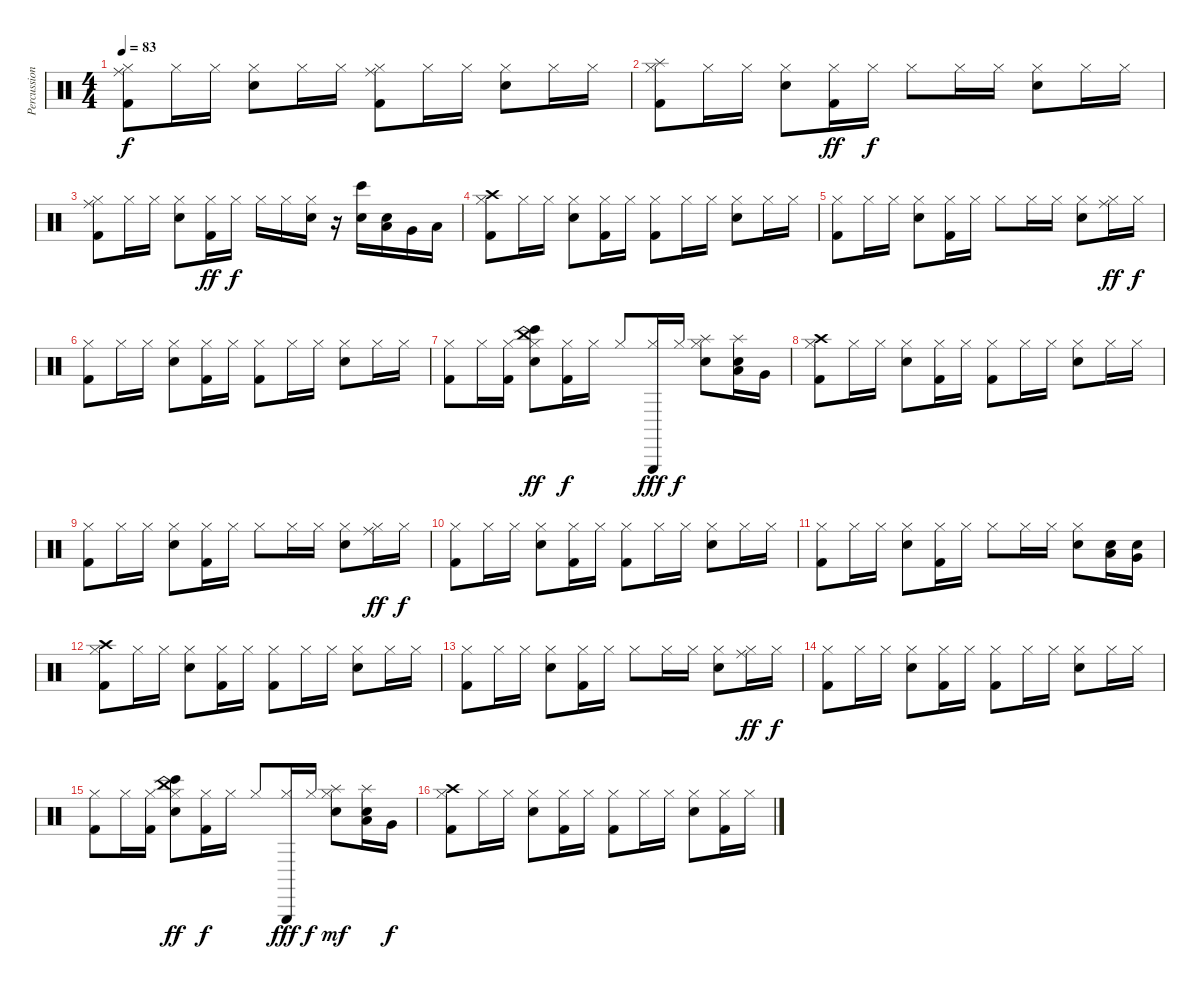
\track ("Percussion" "Percussion") {instrument percussion}
\staff {score}
\articulation defaults
\ts (4 4)
\tempo 83
\clef neutral
\ks c
("Hi-Hat (closed)" "Kick (hit) 2" "Ride (middle)").8{dy f} "Hi-Hat (closed)".16 "Hi-Hat (closed)".16 ("Hi-Hat (closed)" "Electric Snare (hit)").8 "Hi-Hat (closed)".16 "Hi-Hat (closed)".16 ("Hi-Hat (closed)" "Kick (hit) 2" "Ride (middle)").8 "Hi-Hat (closed)".16 "Hi-Hat (closed)".16 ("Hi-Hat (closed)" "Electric Snare (hit)").8 "Hi-Hat (closed)".16 "Hi-Hat (closed)".16 |
("Hi-Hat (closed)" "Kick (hit) 2" "Splash (hit)").8 "Hi-Hat (closed)".16 "Hi-Hat (closed)".16 ("Hi-Hat (closed)" "Electric Snare (hit)").8 ("Hi-Hat (closed)" "Kick (hit) 2").16{dy ff} "Hi-Hat (closed)".16{dy f} "Hi-Hat (closed)".8 "Hi-Hat (closed)".16 "Hi-Hat (closed)".16 ("Hi-Hat (closed)" "Electric Snare (hit)").8 "Hi-Hat (closed)".16 "Hi-Hat (closed)".16 |
("Hi-Hat (closed)" "Kick (hit) 2" "Ride (middle)").8 "Hi-Hat (closed)".16 "Hi-Hat (closed)".16 ("Hi-Hat (closed)" "Electric Snare (hit)").8 ("Hi-Hat (closed)" "Kick (hit) 2").16{dy ff} "Hi-Hat (closed)".16{dy f} "Hi-Hat (closed)".16 "Hi-Hat (closed)".16 ("Hi-Hat (closed)" "Electric Snare (hit)").16 r.16 ("Electric Snare (hit)" "Bongo High (hit)").16 ("Snare (hit) 2" "Low Tom (hit)").16 "Very Low Tom (hit)".16 "Low Floor Tom (hit)".16 |
("Kick (hit) 2" "Hi-Hat (closed)" "Crash high (hit)").8 "Hi-Hat (closed)".16 "Hi-Hat (closed)".16 ("Hi-Hat (closed)" "Electric Snare (hit)").8 ("Hi-Hat (closed)" "Kick (hit) 2").16 "Hi-Hat (closed)".16 ("Hi-Hat (closed)" "Kick (hit) 2").8 "Hi-Hat (closed)".16 "Hi-Hat (closed)".16 ("Hi-Hat (closed)" "Electric Snare (hit)").8 "Hi-Hat (closed)".16 "Hi-Hat (closed)".16 |
("Hi-Hat (closed)" "Kick (hit) 2").8 "Hi-Hat (closed)".16 "Hi-Hat (closed)".16 ("Hi-Hat (closed)" "Electric Snare (hit)").8 ("Hi-Hat (closed)" "Kick (hit) 2").16 "Hi-Hat (closed)".16 "Hi-Hat (closed)".8 "Hi-Hat (closed)".16 "Hi-Hat (closed)".16 ("Hi-Hat (closed)" "Electric Snare (hit)").8 ("Hi-Hat (closed)" "Ride (middle)").16{dy ff} "Hi-Hat (closed)".16{dy f} |
("Kick (hit) 2" "Hi-Hat (closed)").8 "Hi-Hat (closed)".16 "Hi-Hat (closed)".16 ("Hi-Hat (closed)" "Electric Snare (hit)").8 ("Hi-Hat (closed)" "Kick (hit) 2").16 "Hi-Hat (closed)".16 ("Hi-Hat (closed)" "Kick (hit) 2").8 "Hi-Hat (closed)".16 "Hi-Hat (closed)".16 ("Hi-Hat (closed)" "Electric Snare (hit)").8 "Hi-Hat (closed)".16 "Hi-Hat (closed)".16 |
("Hi-Hat (closed)" "Kick (hit) 2").8 "Hi-Hat (closed)".16 ("Hi-Hat (closed)" "Kick (hit) 2").16 ("Hi-Hat (closed)" "Snare (hit) 2" "China (hit)" "Bongo High (hit)").8{dy ff} ("Hi-Hat (closed)" "Kick (hit) 2").16{dy f} "Hi-Hat (closed)".16 "Hi-Hat (closed)".8 ("Hi-Hat (closed)" "Triangle (hit)").16{dy fff} "Hi-Hat (closed)".16{dy f} ("Hi-Hat (closed)" "Electric Snare (hit)" "Splash (hit)").8 ("Electric Snare (hit)" "Low Tom (hit)" "Splash (hit)").16 "Very Low Tom (hit)".16 |
("Kick (hit) 2" "Hi-Hat (closed)" "Crash high (hit)").8 "Hi-Hat (closed)".16 "Hi-Hat (closed)".16 ("Hi-Hat (closed)" "Electric Snare (hit)").8 ("Hi-Hat (closed)" "Kick (hit) 2").16 "Hi-Hat (closed)".16 ("Hi-Hat (closed)" "Kick (hit) 2").8 "Hi-Hat (closed)".16 "Hi-Hat (closed)".16 ("Hi-Hat (closed)" "Electric Snare (hit)").8 "Hi-Hat (closed)".16 "Hi-Hat (closed)".16 |
("Hi-Hat (closed)" "Kick (hit) 2").8 "Hi-Hat (closed)".16 "Hi-Hat (closed)".16 ("Hi-Hat (closed)" "Electric Snare (hit)").8 ("Hi-Hat (closed)" "Kick (hit) 2").16 "Hi-Hat (closed)".16 "Hi-Hat (closed)".8 "Hi-Hat (closed)".16 "Hi-Hat (closed)".16 ("Hi-Hat (closed)" "Electric Snare (hit)").8 ("Hi-Hat (closed)" "Ride (middle)").16{dy ff} "Hi-Hat (closed)".16{dy f} |
("Kick (hit) 2" "Hi-Hat (closed)").8 "Hi-Hat (closed)".16 "Hi-Hat (closed)".16 ("Hi-Hat (closed)" "Electric Snare (hit)").8 ("Hi-Hat (closed)" "Kick (hit) 2").16 "Hi-Hat (closed)".16 ("Hi-Hat (closed)" "Kick (hit) 2").8 "Hi-Hat (closed)".16 "Hi-Hat (closed)".16 ("Hi-Hat (closed)" "Electric Snare (hit)").8 "Hi-Hat (closed)".16 "Hi-Hat (closed)".16 |
("Hi-Hat (closed)" "Kick (hit) 2").8 "Hi-Hat (closed)".16 "Hi-Hat (closed)".16 ("Hi-Hat (closed)" "Electric Snare (hit)").8 ("Hi-Hat (closed)" "Kick (hit) 2").16 "Hi-Hat (closed)".16 "Hi-Hat (closed)".8 "Hi-Hat (closed)".16 "Hi-Hat (closed)".16 ("Hi-Hat (closed)" "Electric Snare (hit)").8 ("Electric Snare (hit)" "Low Tom (hit)").16 ("Electric Snare (hit)" "Very Low Tom (hit)").16 |
("Kick (hit) 2" "Hi-Hat (closed)" "Crash high (hit)").8 "Hi-Hat (closed)".16 "Hi-Hat (closed)".16 ("Hi-Hat (closed)" "Electric Snare (hit)").8 ("Hi-Hat (closed)" "Kick (hit) 2").16 "Hi-Hat (closed)".16 ("Hi-Hat (closed)" "Kick (hit) 2").8 "Hi-Hat (closed)".16 "Hi-Hat (closed)".16 ("Hi-Hat (closed)" "Electric Snare (hit)").8 "Hi-Hat (closed)".16 "Hi-Hat (closed)".16 |
("Hi-Hat (closed)" "Kick (hit) 2").8 "Hi-Hat (closed)".16 "Hi-Hat (closed)".16 ("Hi-Hat (closed)" "Electric Snare (hit)").8 ("Hi-Hat (closed)" "Kick (hit) 2").16 "Hi-Hat (closed)".16 "Hi-Hat (closed)".8 "Hi-Hat (closed)".16 "Hi-Hat (closed)".16 ("Hi-Hat (closed)" "Electric Snare (hit)").8 ("Hi-Hat (closed)" "Ride (middle)").16{dy ff} "Hi-Hat (closed)".16{dy f} |
("Kick (hit) 2" "Hi-Hat (closed)").8 "Hi-Hat (closed)".16 "Hi-Hat (closed)".16 ("Hi-Hat (closed)" "Electric Snare (hit)").8 ("Hi-Hat (closed)" "Kick (hit) 2").16 "Hi-Hat (closed)".16 ("Hi-Hat (closed)" "Kick (hit) 2").8 "Hi-Hat (closed)".16 "Hi-Hat (closed)".16 ("Hi-Hat (closed)" "Electric Snare (hit)").8 "Hi-Hat (closed)".16 "Hi-Hat (closed)".16 |
("Hi-Hat (closed)" "Kick (hit) 2").8 "Hi-Hat (closed)".16 ("Hi-Hat (closed)" "Kick (hit) 2").16 ("Hi-Hat (closed)" "Snare (hit) 2" "China (hit)" "Bongo High (hit)").8{dy ff} ("Hi-Hat (closed)" "Kick (hit) 2").16{dy f} "Hi-Hat (closed)".16 "Hi-Hat (closed)".8 ("Hi-Hat (closed)" "Triangle (hit)").16{dy fff} "Hi-Hat (closed)".16{dy f} ("Hi-Hat (closed)" "Electric Snare (hit)" "Splash (hit)").8{dy mf} ("Electric Snare (hit)" "Low Tom (hit)" "Splash (hit)").16 "Very Low Tom (hit)".16{dy f} |
("Kick (hit) 2" "Hi-Hat (closed)" "Crash high (hit)").8 "Hi-Hat (closed)".16 "Hi-Hat (closed)".16 ("Hi-Hat (closed)" "Electric Snare (hit)").8 ("Hi-Hat (closed)" "Kick (hit) 2").16 "Hi-Hat (closed)".16 ("Hi-Hat (closed)" "Kick (hit) 2").8 "Hi-Hat (closed)".16 "Hi-Hat (closed)".16 ("Hi-Hat (closed)" "Electric Snare (hit)").8 ("Hi-Hat (closed)" "Kick (hit) 2").16 "Hi-Hat (closed)".16
